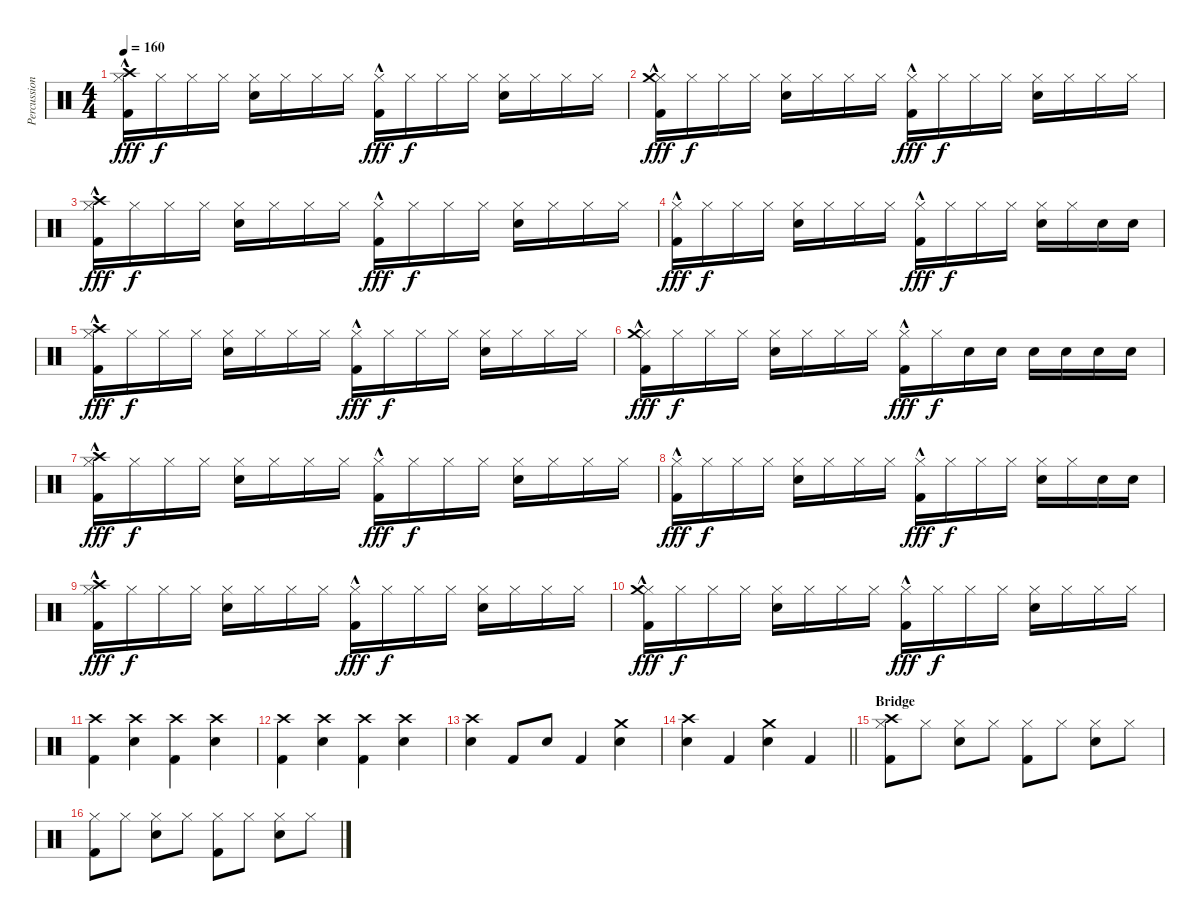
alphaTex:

\track ("Percussion" "Percussion") {instrument percussion}
\staff {score}
\articulation defaults
\ts (4 4)
\tempo 160
\clef neutral
\ks c
("Hi-Hat (closed)"{hac} "Crash high (hit)" "Kick (hit) 2").16{dy fff} "Hi-Hat (closed)".16{dy f} "Hi-Hat (closed)".16 "Hi-Hat (closed)".16 ("Hi-Hat (closed)" "Snare (hit) 2").16 "Hi-Hat (closed)".16 "Hi-Hat (closed)".16 "Hi-Hat (closed)".16 ("Hi-Hat (closed)"{hac} "Kick (hit) 2").16{dy fff} "Hi-Hat (closed)".16{dy f} "Hi-Hat (closed)".16 "Hi-Hat (closed)".16 ("Hi-Hat (closed)" "Snare (hit) 2").16 "Hi-Hat (closed)".16 "Hi-Hat (closed)".16 "Hi-Hat (closed)".16 |
("Hi-Hat (closed)"{hac} "Crash medium (hit)" "Kick (hit) 2").16{dy fff} "Hi-Hat (closed)".16{dy f} "Hi-Hat (closed)".16 "Hi-Hat (closed)".16 ("Hi-Hat (closed)" "Snare (hit) 2").16 "Hi-Hat (closed)".16 "Hi-Hat (closed)".16 "Hi-Hat (closed)".16 ("Hi-Hat (closed)"{hac} "Kick (hit) 2").16{dy fff} "Hi-Hat (closed)".16{dy f} "Hi-Hat (closed)".16 "Hi-Hat (closed)".16 ("Hi-Hat (closed)" "Snare (hit) 2").16 "Hi-Hat (closed)".16 "Hi-Hat (closed)".16 "Hi-Hat (closed)".16 |
("Hi-Hat (closed)"{hac} "Crash high (hit)" "Kick (hit) 2").16{dy fff} "Hi-Hat (closed)".16{dy f} "Hi-Hat (closed)".16 "Hi-Hat (closed)".16 ("Hi-Hat (closed)" "Snare (hit) 2").16 "Hi-Hat (closed)".16 "Hi-Hat (closed)".16 "Hi-Hat (closed)".16 ("Hi-Hat (closed)"{hac} "Kick (hit) 2").16{dy fff} "Hi-Hat (closed)".16{dy f} "Hi-Hat (closed)".16 "Hi-Hat (closed)".16 ("Hi-Hat (closed)" "Snare (hit) 2").16 "Hi-Hat (closed)".16 "Hi-Hat (closed)".16 "Hi-Hat (closed)".16 |
("Hi-Hat (closed)"{hac} "Kick (hit) 2").16{dy fff} "Hi-Hat (closed)".16{dy f} "Hi-Hat (closed)".16 "Hi-Hat (closed)".16 ("Hi-Hat (closed)" "Snare (hit) 2").16 "Hi-Hat (closed)".16 "Hi-Hat (closed)".16 "Hi-Hat (closed)".16 ("Hi-Hat (closed)"{hac} "Kick (hit) 2").16{dy fff} "Hi-Hat (closed)".16{dy f} "Hi-Hat (closed)".16 "Hi-Hat (closed)".16 ("Hi-Hat (closed)" "Snare (hit) 2").16 "Hi-Hat (closed)".16 "Snare (hit) 2".16 "Snare (hit) 2".16 |
("Hi-Hat (closed)"{hac} "Crash high (hit)" "Kick (hit) 2").16{dy fff} "Hi-Hat (closed)".16{dy f} "Hi-Hat (closed)".16 "Hi-Hat (closed)".16 ("Hi-Hat (closed)" "Snare (hit) 2").16 "Hi-Hat (closed)".16 "Hi-Hat (closed)".16 "Hi-Hat (closed)".16 ("Hi-Hat (closed)"{hac} "Kick (hit) 2").16{dy fff} "Hi-Hat (closed)".16{dy f} "Hi-Hat (closed)".16 "Hi-Hat (closed)".16 ("Hi-Hat (closed)" "Snare (hit) 2").16 "Hi-Hat (closed)".16 "Hi-Hat (closed)".16 "Hi-Hat (closed)".16 |
("Hi-Hat (closed)"{hac} "Crash medium (hit)" "Kick (hit) 2").16{dy fff} "Hi-Hat (closed)".16{dy f} "Hi-Hat (closed)".16 "Hi-Hat (closed)".16 ("Hi-Hat (closed)" "Snare (hit) 2").16 "Hi-Hat (closed)".16 "Hi-Hat (closed)".16 "Hi-Hat (closed)".16 ("Hi-Hat (closed)"{hac} "Kick (hit) 2").16{dy fff} "Hi-Hat (closed)".16{dy f} "Snare (hit) 2".16 "Snare (hit) 2".16 "Snare (hit) 2".16 "Snare (hit) 2".16 "Snare (hit) 2".16 "Snare (hit) 2".16 |
("Hi-Hat (closed)"{hac} "Crash high (hit)" "Kick (hit) 2").16{dy fff} "Hi-Hat (closed)".16{dy f} "Hi-Hat (closed)".16 "Hi-Hat (closed)".16 ("Hi-Hat (closed)" "Snare (hit) 2").16 "Hi-Hat (closed)".16 "Hi-Hat (closed)".16 "Hi-Hat (closed)".16 ("Hi-Hat (closed)"{hac} "Kick (hit) 2").16{dy fff} "Hi-Hat (closed)".16{dy f} "Hi-Hat (closed)".16 "Hi-Hat (closed)".16 ("Hi-Hat (closed)" "Snare (hit) 2").16 "Hi-Hat (closed)".16 "Hi-Hat (closed)".16 "Hi-Hat (closed)".16 |
("Hi-Hat (closed)"{hac} "Kick (hit) 2").16{dy fff} "Hi-Hat (closed)".16{dy f} "Hi-Hat (closed)".16 "Hi-Hat (closed)".16 ("Hi-Hat (closed)" "Snare (hit) 2").16 "Hi-Hat (closed)".16 "Hi-Hat (closed)".16 "Hi-Hat (closed)".16 ("Hi-Hat (closed)"{hac} "Kick (hit) 2").16{dy fff} "Hi-Hat (closed)".16{dy f} "Hi-Hat (closed)".16 "Hi-Hat (closed)".16 ("Hi-Hat (closed)" "Snare (hit) 2").16 "Hi-Hat (closed)".16 "Snare (hit) 2".16 "Snare (hit) 2".16 |
("Hi-Hat (closed)"{hac} "Crash high (hit)" "Kick (hit) 2").16{dy fff} "Hi-Hat (closed)".16{dy f} "Hi-Hat (closed)".16 "Hi-Hat (closed)".16 ("Hi-Hat (closed)" "Snare (hit) 2").16 "Hi-Hat (closed)".16 "Hi-Hat (closed)".16 "Hi-Hat (closed)".16 ("Hi-Hat (closed)"{hac} "Kick (hit) 2").16{dy fff} "Hi-Hat (closed)".16{dy f} "Hi-Hat (closed)".16 "Hi-Hat (closed)".16 ("Hi-Hat (closed)" "Snare (hit) 2").16 "Hi-Hat (closed)".16 "Hi-Hat (closed)".16 "Hi-Hat (closed)".16 |
("Hi-Hat (closed)"{hac} "Crash medium (hit)" "Kick (hit) 2").16{dy fff} "Hi-Hat (closed)".16{dy f} "Hi-Hat (closed)".16 "Hi-Hat (closed)".16 ("Hi-Hat (closed)" "Snare (hit) 2").16 "Hi-Hat (closed)".16 "Hi-Hat (closed)".16 "Hi-Hat (closed)".16 ("Hi-Hat (closed)"{hac} "Kick (hit) 2").16{dy fff} "Hi-Hat (closed)".16{dy f} "Hi-Hat (closed)".16 "Hi-Hat (closed)".16 ("Hi-Hat (closed)" "Snare (hit) 2").16 "Hi-Hat (closed)".16 "Hi-Hat (closed)".16 "Hi-Hat (closed)".16 |
("Crash high (hit)" "Kick (hit) 2").4 ("Crash high (hit)" "Snare (hit) 2").4 ("Crash high (hit)" "Kick (hit) 2").4 ("Crash high (hit)" "Snare (hit) 2").4 |
("Crash high (hit)" "Kick (hit) 2").4 ("Crash high (hit)" "Snare (hit) 2").4 ("Crash high (hit)" "Kick (hit) 2").4 ("Crash high (hit)" "Snare (hit) 2").4 |
("Crash high (hit)" "Snare (hit) 2").4 "Kick (hit) 2".8 "Snare (hit) 2".8 "Kick (hit) 2".4 ("Crash medium (hit)" "Snare (hit) 2").4 |
\barLineRight lightlight
("Crash high (hit)" "Snare (hit) 2").4 "Kick (hit) 2".4 ("Crash medium (hit)" "Snare (hit) 2").4 "Kick (hit) 2".4 |
\section ("" "Bridge")
("Hi-Hat (closed)" "Crash high (hit)" "Kick (hit) 2").8 "Hi-Hat (closed)".8 ("Hi-Hat (closed)" "Snare (hit) 2").8 "Hi-Hat (closed)".8 ("Hi-Hat (closed)" "Kick (hit) 2").8 "Hi-Hat (closed)".8 ("Hi-Hat (closed)" "Snare (hit) 2").8 "Hi-Hat (closed)".8 |
("Hi-Hat (closed)" "Kick (hit) 2").8 "Hi-Hat (closed)".8 ("Hi-Hat (closed)" "Snare (hit) 2").8 "Hi-Hat (closed)".8 ("Hi-Hat (closed)" "Kick (hit) 2").8 "Hi-Hat (closed)".8 ("Hi-Hat (closed)" "Snare (hit) 2").8 "Hi-Hat (closed)".8
